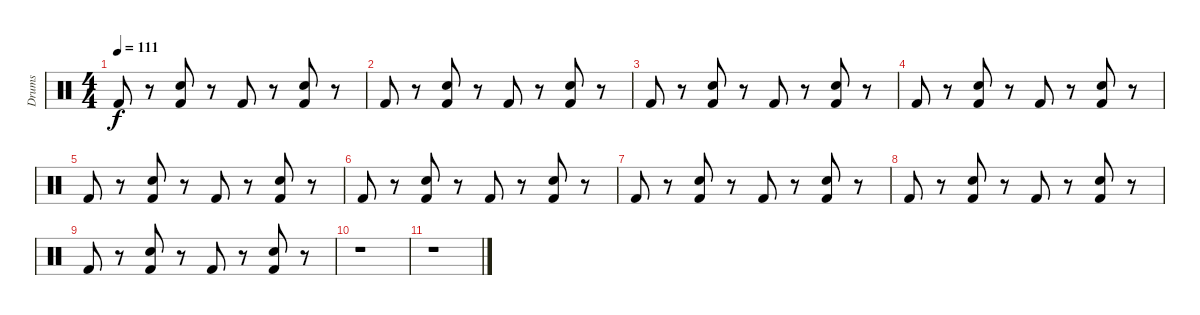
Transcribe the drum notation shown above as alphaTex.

\track ("Drums" "Drums") {instrument percussion}
\staff {score}
\articulation defaults
\ts (4 4)
\tempo 111
\clef neutral
\ks c "Kick (hit) 2".8{dy f}
r.8 ("Kick (hit) 2" "Electric Snare (hit)").8 r.8 "Kick (hit) 2".8 r.8 ("Kick (hit) 2" "Electric Snare (hit)").8 r.8 |
"Kick (hit) 2".8 r.8 ("Kick (hit) 2" "Electric Snare (hit)").8 r.8 "Kick (hit) 2".8 r.8 ("Kick (hit) 2" "Electric Snare (hit)").8 r.8 |
"Kick (hit) 2".8 r.8 ("Kick (hit) 2" "Electric Snare (hit)").8 r.8 "Kick (hit) 2".8 r.8 ("Kick (hit) 2" "Electric Snare (hit)").8 r.8 |
"Kick (hit) 2".8 r.8 ("Kick (hit) 2" "Electric Snare (hit)").8 r.8 "Kick (hit) 2".8 r.8 ("Kick (hit) 2" "Electric Snare (hit)").8 r.8 |
"Kick (hit) 2".8 r.8 ("Kick (hit) 2" "Electric Snare (hit)").8 r.8 "Kick (hit) 2".8 r.8 ("Kick (hit) 2" "Electric Snare (hit)").8 r.8 |
"Kick (hit) 2".8 r.8 ("Kick (hit) 2" "Electric Snare (hit)").8 r.8 "Kick (hit) 2".8 r.8 ("Kick (hit) 2" "Electric Snare (hit)").8 r.8 |
"Kick (hit) 2".8 r.8 ("Kick (hit) 2" "Electric Snare (hit)").8 r.8 "Kick (hit) 2".8 r.8 ("Kick (hit) 2" "Electric Snare (hit)").8 r.8 |
"Kick (hit) 2".8 r.8 ("Kick (hit) 2" "Electric Snare (hit)").8 r.8 "Kick (hit) 2".8 r.8 ("Kick (hit) 2" "Electric Snare (hit)").8 r.8 |
"Kick (hit) 2".8 r.8 ("Kick (hit) 2" "Electric Snare (hit)").8 r.8 "Kick (hit) 2".8 r.8 ("Kick (hit) 2" "Electric Snare (hit)").8 r.8 |
r.1 |
r.1
